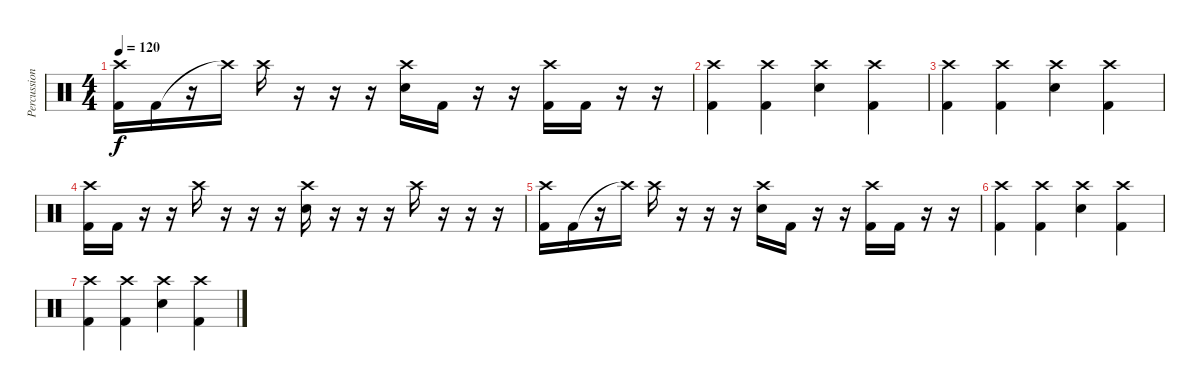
\track ("Percussions" "Percussion") {instrument percussion}
\staff {score}
\articulation defaults
\ts (4 4)
\tempo 120
\clef neutral
\ks c
("Crash high (hit)" "Kick (hit) 2").16{dy f} "Kick (hit) 2".16 r.16 "Crash high (hit)"{t}.16 "Crash high (hit)".16 r.16 r.16 r.16 ("Crash high (hit)" "Snare (hit) 2").16 "Kick (hit) 2".16 r.16 r.16 ("Crash high (hit)" "Kick (hit) 2").16 "Kick (hit) 2".16 r.16 r.16 |
("Crash high (hit)" "Kick (hit) 2").4 ("Crash high (hit)" "Kick (hit) 2").4 ("Crash high (hit)" "Electric Snare (hit)").4 ("Crash high (hit)" "Kick (hit) 2").4 |
("Crash high (hit)" "Kick (hit) 2").4 ("Crash high (hit)" "Kick (hit) 2").4 ("Crash high (hit)" "Electric Snare (hit)").4 ("Crash high (hit)" "Kick (hit) 2").4 |
("Crash high (hit)" "Kick (hit) 2").16{volume 0} "Kick (hit) 2".16 r.16 r.16 "Crash high (hit)".16 r.16 r.16 r.16 ("Crash high (hit)" "Snare (hit) 2").16 r.16 r.16 r.16 "Crash high (hit)".16 r.16 r.16 r.16 |
("Crash high (hit)" "Kick (hit) 2").16 "Kick (hit) 2".16 r.16 "Crash high (hit)"{t}.16 "Crash high (hit)".16 r.16 r.16 r.16 ("Crash high (hit)" "Snare (hit) 2").16 "Kick (hit) 2".16 r.16 r.16 ("Crash high (hit)" "Kick (hit) 2").16 "Kick (hit) 2".16 r.16 r.16 |
("Crash high (hit)" "Kick (hit) 2").4 ("Crash high (hit)" "Kick (hit) 2").4 ("Crash high (hit)" "Electric Snare (hit)").4 ("Crash high (hit)" "Kick (hit) 2").4 |
("Crash high (hit)" "Kick (hit) 2").4 ("Crash high (hit)" "Kick (hit) 2").4 ("Crash high (hit)" "Electric Snare (hit)").4 ("Crash high (hit)" "Kick (hit) 2").4
